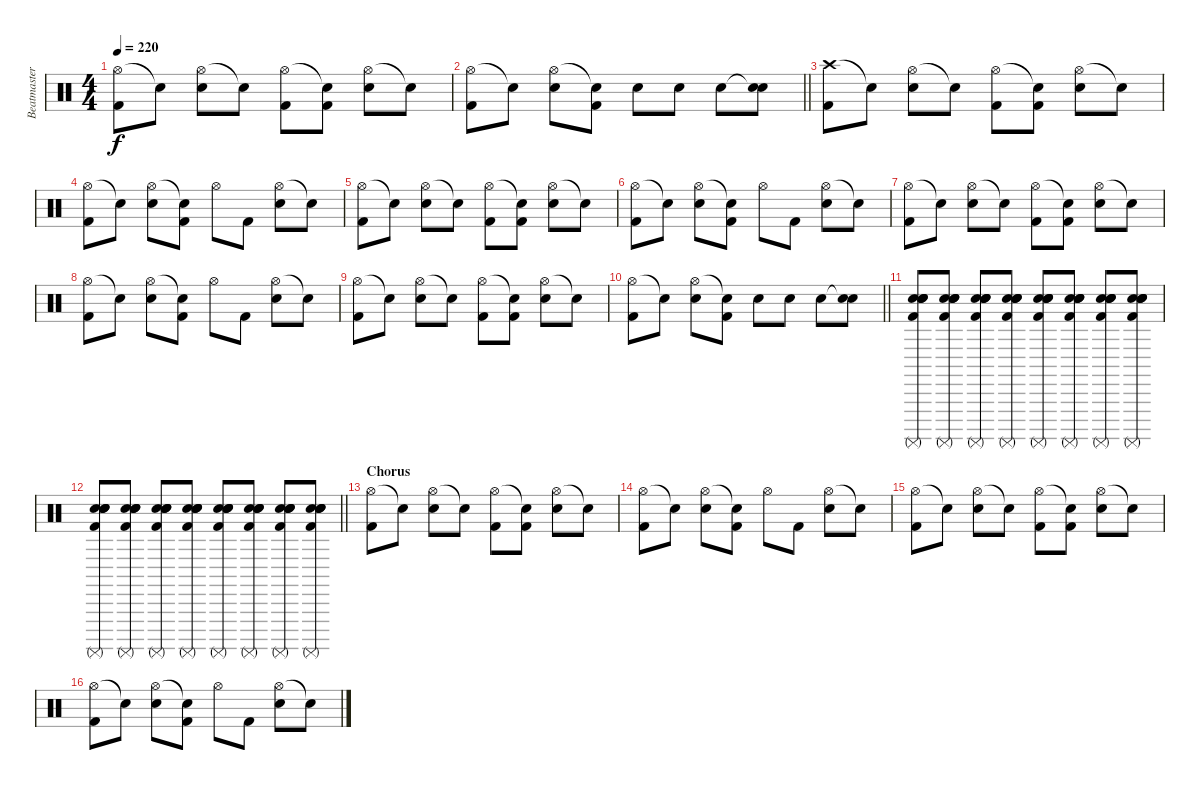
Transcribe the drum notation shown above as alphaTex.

\track ("Beatmaster V" "Beatmaster") {instrument percussion}
\staff {score}
\articulation defaults
\ts (4 4)
\tempo 220
\clef neutral
\ks c
("Hi-Hat (open)" "Kick (hit) 2").8{dy f} "Snare (hit)"{t}.8 ("Hi-Hat (open)" "Snare (hit) 2").8 "Snare (hit)"{t}.8 ("Hi-Hat (open)" "Kick (hit) 2").8 ("Snare (hit)"{t} "Kick (hit) 2").8 ("Hi-Hat (open)" "Snare (hit) 2").8 "Snare (hit)"{t}.8 |
\barLineRight lightlight
("Hi-Hat (open)" "Kick (hit) 2").8 "Snare (hit)"{t}.8 ("Hi-Hat (open)" "Snare (hit) 2").8 ("Snare (hit)"{t} "Kick (hit) 2").8 "Snare (hit) 2".8 "Snare (hit) 2".8 "Snare (hit) 2".8 ("Snare (hit)"{t} "Snare (hit) 2").8 |
("Crash high (hit)" "Kick (hit) 2").8 "Snare (hit)"{t}.8 ("Hi-Hat (open)" "Snare (hit) 2").8 "Snare (hit)"{t}.8 ("Hi-Hat (open)" "Kick (hit) 2").8 ("Snare (hit)"{t} "Kick (hit) 2").8 ("Hi-Hat (open)" "Snare (hit) 2").8 "Snare (hit)"{t}.8 |
("Hi-Hat (open)" "Kick (hit) 2").8 "Snare (hit)"{t}.8 ("Hi-Hat (open)" "Snare (hit) 2").8 ("Snare (hit)"{t} "Kick (hit) 2").8 "Hi-Hat (open)".8 "Kick (hit) 2".8 ("Hi-Hat (open)" "Snare (hit) 2").8 "Snare (hit)"{t}.8 |
("Hi-Hat (open)" "Kick (hit) 2").8 "Snare (hit)"{t}.8 ("Hi-Hat (open)" "Snare (hit) 2").8 "Snare (hit)"{t}.8 ("Hi-Hat (open)" "Kick (hit) 2").8 ("Snare (hit)"{t} "Kick (hit) 2").8 ("Hi-Hat (open)" "Snare (hit) 2").8 "Snare (hit)"{t}.8 |
("Hi-Hat (open)" "Kick (hit) 2").8 "Snare (hit)"{t}.8 ("Hi-Hat (open)" "Snare (hit) 2").8 ("Snare (hit)"{t} "Kick (hit) 2").8 "Hi-Hat (open)".8 "Kick (hit) 2".8 ("Hi-Hat (open)" "Snare (hit) 2").8 "Snare (hit)"{t}.8 |
("Hi-Hat (open)" "Kick (hit) 2").8 "Snare (hit)"{t}.8 ("Hi-Hat (open)" "Snare (hit) 2").8 "Snare (hit)"{t}.8 ("Hi-Hat (open)" "Kick (hit) 2").8 ("Snare (hit)"{t} "Kick (hit) 2").8 ("Hi-Hat (open)" "Snare (hit) 2").8 "Snare (hit)"{t}.8 |
("Hi-Hat (open)" "Kick (hit) 2").8 "Snare (hit)"{t}.8 ("Hi-Hat (open)" "Snare (hit) 2").8 ("Snare (hit)"{t} "Kick (hit) 2").8 "Hi-Hat (open)".8 "Kick (hit) 2".8 ("Hi-Hat (open)" "Snare (hit) 2").8 "Snare (hit)"{t}.8 |
("Hi-Hat (open)" "Kick (hit) 2").8 "Snare (hit)"{t}.8 ("Hi-Hat (open)" "Snare (hit) 2").8 "Snare (hit)"{t}.8 ("Hi-Hat (open)" "Kick (hit) 2").8 ("Snare (hit)"{t} "Kick (hit) 2").8 ("Hi-Hat (open)" "Snare (hit) 2").8 "Snare (hit)"{t}.8 |
\barLineRight lightlight
("Hi-Hat (open)" "Kick (hit) 2").8 "Snare (hit)"{t}.8 ("Hi-Hat (open)" "Snare (hit) 2").8 ("Snare (hit)"{t} "Kick (hit) 2").8 "Snare (hit) 2".8 "Snare (hit) 2".8 "Snare (hit) 2".8 ("Snare (hit)"{t} "Snare (hit) 2").8 |
("Surdo (mute)" "Kick (hit) 2" "Snare (hit) 2" "Snare (hit) 2" "Electric Snare (hit)" "Electric Snare (hit)").8 ("Surdo (mute)" "Kick (hit) 2" "Snare (hit) 2" "Snare (hit) 2" "Electric Snare (hit)" "Electric Snare (hit)").8 ("Surdo (mute)" "Kick (hit) 2" "Snare (hit) 2" "Snare (hit) 2" "Electric Snare (hit)" "Electric Snare (hit)").8 ("Surdo (mute)" "Kick (hit) 2" "Snare (hit) 2" "Snare (hit) 2" "Electric Snare (hit)" "Electric Snare (hit)").8 ("Surdo (mute)" "Kick (hit) 2" "Snare (hit) 2" "Snare (hit) 2" "Electric Snare (hit)" "Electric Snare (hit)").8 ("Surdo (mute)" "Kick (hit) 2" "Snare (hit) 2" "Snare (hit) 2" "Electric Snare (hit)" "Electric Snare (hit)").8 ("Surdo (mute)" "Kick (hit) 2" "Snare (hit) 2" "Snare (hit) 2" "Electric Snare (hit)" "Electric Snare (hit)").8 ("Surdo (mute)" "Kick (hit) 2" "Snare (hit) 2" "Snare (hit) 2" "Electric Snare (hit)" "Electric Snare (hit)").8 |
\barLineRight lightlight
("Surdo (mute)" "Kick (hit) 2" "Snare (hit) 2" "Snare (hit) 2" "Electric Snare (hit)" "Electric Snare (hit)").8 ("Surdo (mute)" "Kick (hit) 2" "Snare (hit) 2" "Snare (hit) 2" "Electric Snare (hit)" "Electric Snare (hit)").8 ("Surdo (mute)" "Kick (hit) 2" "Snare (hit) 2" "Snare (hit) 2" "Electric Snare (hit)" "Electric Snare (hit)").8 ("Surdo (mute)" "Kick (hit) 2" "Snare (hit) 2" "Snare (hit) 2" "Electric Snare (hit)" "Electric Snare (hit)").8 ("Surdo (mute)" "Kick (hit) 2" "Snare (hit) 2" "Snare (hit) 2" "Electric Snare (hit)" "Electric Snare (hit)").8 ("Surdo (mute)" "Kick (hit) 2" "Snare (hit) 2" "Snare (hit) 2" "Electric Snare (hit)" "Electric Snare (hit)").8 ("Surdo (mute)" "Kick (hit) 2" "Snare (hit) 2" "Snare (hit) 2" "Electric Snare (hit)" "Electric Snare (hit)").8 ("Surdo (mute)" "Kick (hit) 2" "Snare (hit) 2" "Snare (hit) 2" "Electric Snare (hit)" "Electric Snare (hit)").8 |
\section ("" "Chorus")
("Hi-Hat (open)" "Kick (hit) 2").8 "Snare (hit)"{t}.8 ("Hi-Hat (open)" "Snare (hit) 2").8 "Snare (hit)"{t}.8 ("Hi-Hat (open)" "Kick (hit) 2").8 ("Snare (hit)"{t} "Kick (hit) 2").8 ("Hi-Hat (open)" "Snare (hit) 2").8 "Snare (hit)"{t}.8 |
("Hi-Hat (open)" "Kick (hit) 2").8 "Snare (hit)"{t}.8 ("Hi-Hat (open)" "Snare (hit) 2").8 ("Snare (hit)"{t} "Kick (hit) 2").8 "Hi-Hat (open)".8 "Kick (hit) 2".8 ("Hi-Hat (open)" "Snare (hit) 2").8 "Snare (hit)"{t}.8 |
("Hi-Hat (open)" "Kick (hit) 2").8 "Snare (hit)"{t}.8 ("Hi-Hat (open)" "Snare (hit) 2").8 "Snare (hit)"{t}.8 ("Hi-Hat (open)" "Kick (hit) 2").8 ("Snare (hit)"{t} "Kick (hit) 2").8 ("Hi-Hat (open)" "Snare (hit) 2").8 "Snare (hit)"{t}.8 |
("Hi-Hat (open)" "Kick (hit) 2").8 "Snare (hit)"{t}.8 ("Hi-Hat (open)" "Snare (hit) 2").8 ("Snare (hit)"{t} "Kick (hit) 2").8 "Hi-Hat (open)".8 "Kick (hit) 2".8 ("Hi-Hat (open)" "Snare (hit) 2").8 "Snare (hit)"{t}.8
